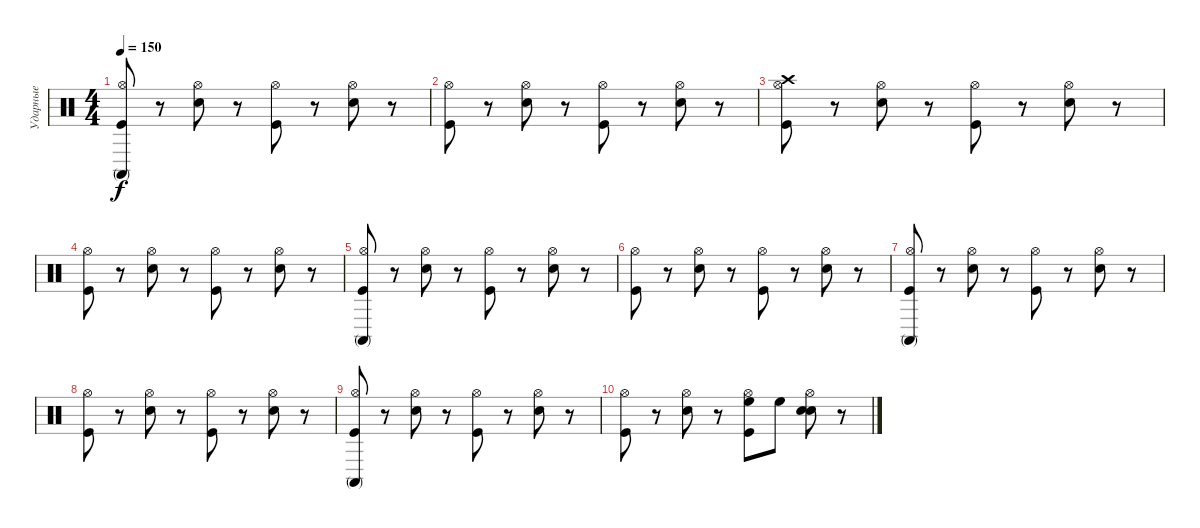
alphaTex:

\track ("Ударные" "Ударные") {instrument percussion}
\staff {score}
\articulation defaults
\ts (4 4)
\tempo 150
\clef neutral
\ks c
("Hi-Hat (open)" "Kick (hit)" "Conga high (mute)").8{dy f} r.8 ("Hi-Hat (open)" "Snare (hit) 2").8 r.8 ("Hi-Hat (open)" "Kick (hit)").8 r.8 ("Hi-Hat (open)" "Snare (hit) 2").8 r.8 |
("Hi-Hat (open)" "Kick (hit)").8 r.8 ("Hi-Hat (open)" "Snare (hit) 2").8 r.8 ("Hi-Hat (open)" "Kick (hit)").8 r.8 ("Hi-Hat (open)" "Snare (hit) 2").8 r.8 |
("Hi-Hat (open)" "Kick (hit)" "Crash high (hit)").8 r.8 ("Hi-Hat (open)" "Snare (hit) 2").8 r.8 ("Hi-Hat (open)" "Kick (hit)").8 r.8 ("Hi-Hat (open)" "Snare (hit) 2").8 r.8 |
("Hi-Hat (open)" "Kick (hit)").8 r.8 ("Hi-Hat (open)" "Snare (hit) 2").8 r.8 ("Hi-Hat (open)" "Kick (hit)").8 r.8 ("Hi-Hat (open)" "Snare (hit) 2").8 r.8 |
("Hi-Hat (open)" "Kick (hit)" "Conga high (mute)").8 r.8 ("Hi-Hat (open)" "Snare (hit) 2").8 r.8 ("Hi-Hat (open)" "Kick (hit)").8 r.8 ("Hi-Hat (open)" "Snare (hit) 2").8 r.8 |
("Hi-Hat (open)" "Kick (hit)").8 r.8 ("Hi-Hat (open)" "Snare (hit) 2").8 r.8 ("Hi-Hat (open)" "Kick (hit)").8 r.8 ("Hi-Hat (open)" "Snare (hit) 2").8 r.8 |
("Hi-Hat (open)" "Kick (hit)" "Conga high (mute)").8 r.8 ("Hi-Hat (open)" "Snare (hit) 2").8 r.8 ("Hi-Hat (open)" "Kick (hit)").8 r.8 ("Hi-Hat (open)" "Snare (hit) 2").8 r.8 |
("Hi-Hat (open)" "Kick (hit)").8 r.8 ("Hi-Hat (open)" "Snare (hit) 2").8 r.8 ("Hi-Hat (open)" "Kick (hit)").8 r.8 ("Hi-Hat (open)" "Snare (hit) 2").8 r.8 |
("Hi-Hat (open)" "Kick (hit)" "Conga high (mute)").8 r.8 ("Hi-Hat (open)" "Snare (hit) 2").8 r.8 ("Hi-Hat (open)" "Kick (hit)").8 r.8 ("Hi-Hat (open)" "Snare (hit) 2").8 r.8 |
("Hi-Hat (open)" "Kick (hit)").8 r.8 ("Hi-Hat (open)" "Snare (hit) 2").8 r.8 ("Hi-Hat (open)" "Kick (hit)" "High Floor Tom (hit)").8 "High Floor Tom (hit)".8 ("Hi-Hat (open)" "Snare (hit) 2" "Electric Snare (hit)").8 r.8
